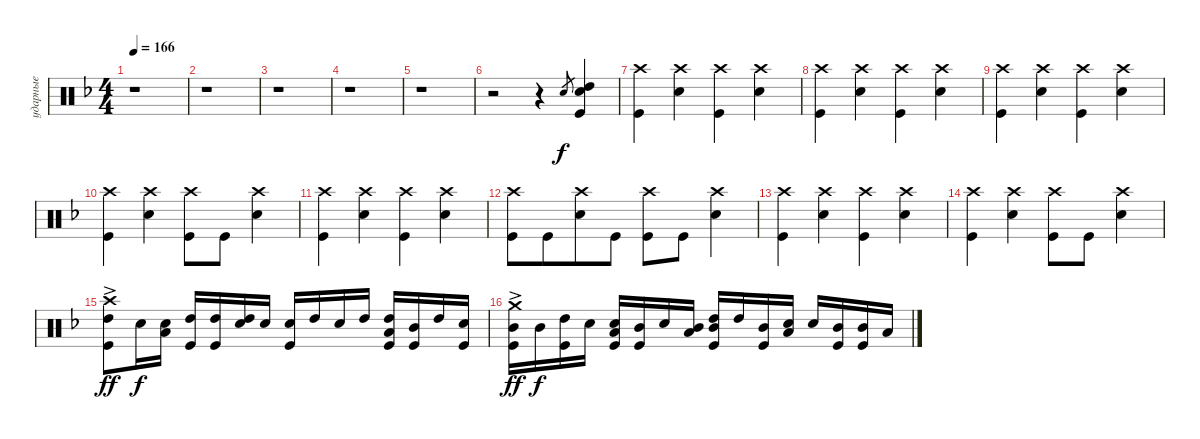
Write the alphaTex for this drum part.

\track ("ударные" "ударные") {instrument percussion}
\staff {score}
\articulation defaults
\ts (4 4)
\tempo 166
\clef neutral
\ks dminor
r.1{dy f} |
r.1 |
r.1 |
r.1 |
r.1 |
r.2 r.4 "Snare (hit) 2".8{gr} ("Snare (hit) 2" "High Tom (hit)" "Kick (hit)").4 |
("Kick (hit)" "Crash high (hit)").4 ("Snare (hit) 2" "Crash high (hit)").4 ("Kick (hit)" "Crash high (hit)").4 ("Snare (hit) 2" "Crash high (hit)").4 |
("Kick (hit)" "Crash high (hit)").4 ("Snare (hit) 2" "Crash high (hit)").4 ("Kick (hit)" "Crash high (hit)").4 ("Snare (hit) 2" "Crash high (hit)").4 |
("Kick (hit)" "Crash high (hit)").4 ("Snare (hit) 2" "Crash high (hit)").4 ("Kick (hit)" "Crash high (hit)").4 ("Snare (hit) 2" "Crash high (hit)").4 |
("Kick (hit)" "Crash high (hit)").4 ("Snare (hit) 2" "Crash high (hit)").4 ("Kick (hit)" "Crash high (hit)").8 "Kick (hit)".8 ("Snare (hit) 2" "Crash high (hit)").4 |
("Kick (hit)" "Crash high (hit)").4 ("Snare (hit) 2" "Crash high (hit)").4 ("Kick (hit)" "Crash high (hit)").4 ("Snare (hit) 2" "Crash high (hit)").4 |
("Kick (hit)" "Crash high (hit)").8 "Kick (hit)".8{beam merge} ("Snare (hit) 2" "Crash high (hit)").8 "Kick (hit)".8 ("Kick (hit)" "Crash high (hit)").8 "Kick (hit)".8{beam merge} ("Snare (hit) 2" "Crash high (hit)").4 |
("Kick (hit)" "Crash high (hit)").4 ("Snare (hit) 2" "Crash high (hit)").4 ("Kick (hit)" "Crash high (hit)").4 ("Snare (hit) 2" "Crash high (hit)").4 |
("Kick (hit)" "Crash high (hit)").4 ("Snare (hit) 2" "Crash high (hit)").4 ("Kick (hit)" "Crash high (hit)").8 "Kick (hit)".8 ("Snare (hit) 2" "Crash high (hit)").4 |
("Kick (hit)" "Crash high (hit)"{ac} "High Tom (hit)").8{dy ff} "Snare (hit) 2".16{dy f} ("Snare (hit) 2" "Low Tom (hit)").16 ("Kick (hit)" "High Tom (hit)").16 ("High Tom (hit)" "Kick (hit)").16 ("Snare (hit) 2" "High Tom (hit)").16 "Snare (hit) 2".16 ("Kick (hit)" "Snare (hit) 2").16 "High Tom (hit)".16 "Snare (hit) 2".16 "High Tom (hit)".16 ("High Tom (hit)" "Low Tom (hit)" "Kick (hit)").16 ("Kick (hit)" "Mid Tom (hit)").16 "High Tom (hit)".16 ("Kick (hit)" "Snare (hit) 2").16 |
("Kick (hit)" "Mid Tom (hit)" "Crash medium (hit)"{ac}).16{dy ff} "Mid Tom (hit)".16{dy f} ("High Tom (hit)" "Kick (hit)").16 "Snare (hit) 2".16 ("Snare (hit) 2" "Kick (hit)" "Low Tom (hit)").16 ("Mid Tom (hit)" "Kick (hit)").16 "Snare (hit) 2".16 ("Mid Tom (hit)" "Low Tom (hit)").16 ("Mid Tom (hit)" "High Tom (hit)" "Kick (hit)").16 "High Tom (hit)".16 ("Mid Tom (hit)" "Kick (hit)").16 ("Low Tom (hit)" "Snare (hit) 2").16 "Snare (hit) 2".16 ("Mid Tom (hit)" "Kick (hit)").16 ("Mid Tom (hit)" "Kick (hit)").16 "Low Tom (hit)".16
